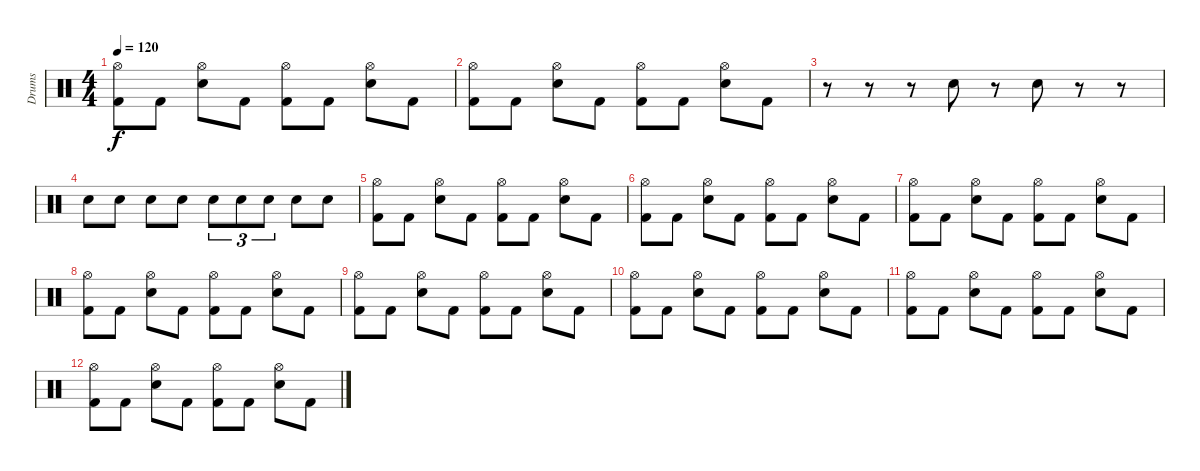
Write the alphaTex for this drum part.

\track ("Drums" "Drums") {instrument percussion}
\staff {score}
\articulation defaults
\ts (4 4)
\tempo 120
\clef neutral
\ks c
("Hi-Hat (open)" "Kick (hit) 2").8{dy f} "Kick (hit) 2".8 ("Hi-Hat (open)" "Electric Snare (hit)").8 "Kick (hit) 2".8 ("Hi-Hat (open)" "Kick (hit) 2").8 "Kick (hit) 2".8 ("Hi-Hat (open)" "Electric Snare (hit)").8 "Kick (hit) 2".8 |
("Hi-Hat (open)" "Kick (hit) 2").8 "Kick (hit) 2".8 ("Hi-Hat (open)" "Electric Snare (hit)").8 "Kick (hit) 2".8 ("Hi-Hat (open)" "Kick (hit) 2").8 "Kick (hit) 2".8 ("Hi-Hat (open)" "Electric Snare (hit)").8 "Kick (hit) 2".8 |
r.8 r.8 r.8 "Electric Snare (hit)".8 r.8 "Electric Snare (hit)".8 r.8 r.8 |
"Electric Snare (hit)".8 "Electric Snare (hit)".8 "Electric Snare (hit)".8 "Electric Snare (hit)".8 "Electric Snare (hit)".8{tu (3 2)} "Electric Snare (hit)".8{tu (3 2)} "Electric Snare (hit)".8{tu (3 2)} "Electric Snare (hit)".8 "Electric Snare (hit)".8 |
("Hi-Hat (open)" "Kick (hit) 2").8 "Kick (hit) 2".8 ("Hi-Hat (open)" "Electric Snare (hit)").8 "Kick (hit) 2".8 ("Hi-Hat (open)" "Kick (hit) 2").8 "Kick (hit) 2".8 ("Hi-Hat (open)" "Electric Snare (hit)").8 "Kick (hit) 2".8 |
("Hi-Hat (open)" "Kick (hit) 2").8 "Kick (hit) 2".8 ("Hi-Hat (open)" "Electric Snare (hit)").8 "Kick (hit) 2".8 ("Hi-Hat (open)" "Kick (hit) 2").8 "Kick (hit) 2".8 ("Hi-Hat (open)" "Electric Snare (hit)").8 "Kick (hit) 2".8 |
("Hi-Hat (open)" "Kick (hit) 2").8 "Kick (hit) 2".8 ("Hi-Hat (open)" "Electric Snare (hit)").8 "Kick (hit) 2".8 ("Hi-Hat (open)" "Kick (hit) 2").8 "Kick (hit) 2".8 ("Hi-Hat (open)" "Electric Snare (hit)").8 "Kick (hit) 2".8 |
("Hi-Hat (open)" "Kick (hit) 2").8 "Kick (hit) 2".8 ("Hi-Hat (open)" "Electric Snare (hit)").8 "Kick (hit) 2".8 ("Hi-Hat (open)" "Kick (hit) 2").8 "Kick (hit) 2".8 ("Hi-Hat (open)" "Electric Snare (hit)").8 "Kick (hit) 2".8 |
("Hi-Hat (open)" "Kick (hit) 2").8 "Kick (hit) 2".8 ("Hi-Hat (open)" "Electric Snare (hit)").8 "Kick (hit) 2".8 ("Hi-Hat (open)" "Kick (hit) 2").8 "Kick (hit) 2".8 ("Hi-Hat (open)" "Electric Snare (hit)").8 "Kick (hit) 2".8 |
("Hi-Hat (open)" "Kick (hit) 2").8 "Kick (hit) 2".8 ("Hi-Hat (open)" "Electric Snare (hit)").8 "Kick (hit) 2".8 ("Hi-Hat (open)" "Kick (hit) 2").8 "Kick (hit) 2".8 ("Hi-Hat (open)" "Electric Snare (hit)").8 "Kick (hit) 2".8 |
("Hi-Hat (open)" "Kick (hit) 2").8 "Kick (hit) 2".8 ("Hi-Hat (open)" "Electric Snare (hit)").8 "Kick (hit) 2".8 ("Hi-Hat (open)" "Kick (hit) 2").8 "Kick (hit) 2".8 ("Hi-Hat (open)" "Electric Snare (hit)").8 "Kick (hit) 2".8 |
("Hi-Hat (open)" "Kick (hit) 2").8 "Kick (hit) 2".8 ("Hi-Hat (open)" "Electric Snare (hit)").8 "Kick (hit) 2".8 ("Hi-Hat (open)" "Kick (hit) 2").8 "Kick (hit) 2".8 ("Hi-Hat (open)" "Electric Snare (hit)").8 "Kick (hit) 2".8
